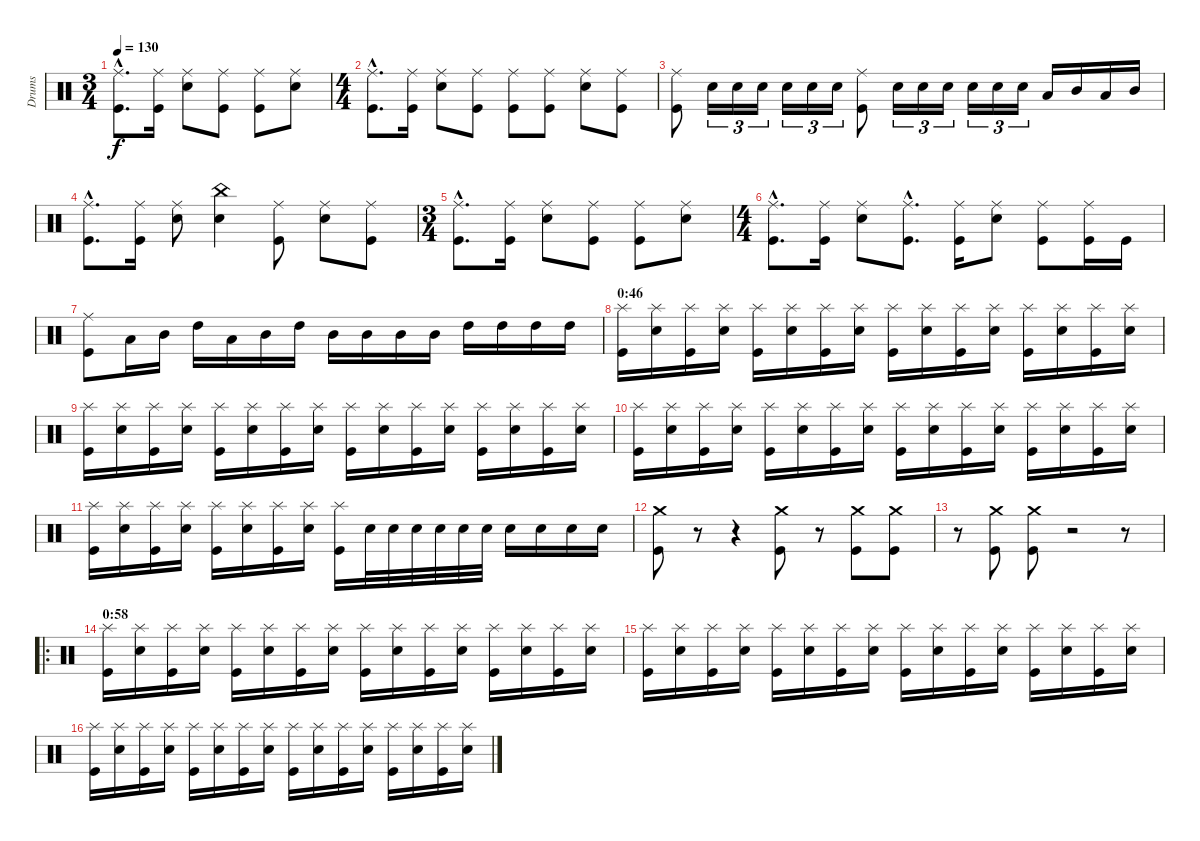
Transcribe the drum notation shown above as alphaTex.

\track ("Drums" "Drums") {instrument percussion}
\staff {score}
\articulation defaults
\ts (3 4)
\tempo 130
\clef neutral
\ks c
("Kick (hit)"{hac} "Ride (middle)"{hac}).8{d dy f} ("Kick (hit)" "Ride (middle)").16 ("Electric Snare (hit)" "Ride (middle)").8 ("Kick (hit)" "Ride (middle)").8 ("Kick (hit)" "Ride (middle)").8 ("Electric Snare (hit)" "Ride (middle)").8 |
\ts (4 4)
("Kick (hit)"{hac} "Ride (middle)"{hac}).8{d} ("Kick (hit)" "Ride (middle)").16 ("Electric Snare (hit)" "Ride (middle)").8 ("Kick (hit)" "Ride (middle)").8 ("Kick (hit)" "Ride (middle)").8 ("Kick (hit)" "Ride (middle)").8 ("Electric Snare (hit)" "Ride (middle)").8 ("Kick (hit)" "Ride (middle)").8 |
("Kick (hit)" "Ride (middle)").8 "Electric Snare (hit)".16{tu (3 2)} "Electric Snare (hit)".16{tu (3 2)} "Electric Snare (hit)".16{tu (3 2)} "Electric Snare (hit)".16{tu (3 2)} "Electric Snare (hit)".16{tu (3 2)} "Electric Snare (hit)".16{tu (3 2)} ("Kick (hit)" "Ride (middle)").8 "Electric Snare (hit)".16{tu (3 2)} "Electric Snare (hit)".16{tu (3 2)} "Electric Snare (hit)".16{tu (3 2)} "Electric Snare (hit)".16{tu (3 2)} "Electric Snare (hit)".16{tu (3 2)} "Electric Snare (hit)".16{tu (3 2)} "Low Tom (hit)".16 "Mid Tom (hit)".16 "Low Tom (hit)".16 "Mid Tom (hit)".16 |
("Kick (hit)"{hac} "Ride (middle)"{hac}).8{d} ("Kick (hit)" "Ride (middle)").16 ("Electric Snare (hit)" "Ride (middle)").8 ("Electric Snare (hit)" "China (hit)").4 ("Kick (hit)" "Ride (middle)").8 ("Electric Snare (hit)" "Ride (middle)").8 ("Kick (hit)" "Ride (middle)").8 |
\ts (3 4)
("Kick (hit)"{hac} "Ride (middle)"{hac}).8{d} ("Kick (hit)" "Ride (middle)").16 ("Electric Snare (hit)" "Ride (middle)").8 ("Kick (hit)" "Ride (middle)").8 ("Kick (hit)" "Ride (middle)").8 ("Electric Snare (hit)" "Ride (middle)").8 |
\ts (4 4)
("Kick (hit)"{hac} "Ride (middle)"{hac}).8{d} ("Kick (hit)" "Ride (middle)").16 ("Electric Snare (hit)" "Ride (middle)").8 ("Kick (hit)"{hac} "Ride (middle)"{hac}).8{d} ("Kick (hit)" "Ride (middle)").16 ("Electric Snare (hit)" "Ride (middle)").8 ("Kick (hit)" "Ride (middle)").8 ("Kick (hit)" "Ride (middle)").16 "Kick (hit)".16 |
("Kick (hit)" "Ride (middle)").8 "Low Tom (hit)".16 "Mid Tom (hit)".16 "High Tom (hit)".16 "Low Tom (hit)".16 "Mid Tom (hit)".16 "High Tom (hit)".16 "Mid Tom (hit)".16 "Mid Tom (hit)".16 "Mid Tom (hit)".16 "Mid Tom (hit)".16 "High Tom (hit)".16 "High Tom (hit)".16 "High Tom (hit)".16 "High Tom (hit)".16 |
\section ("" "0:46")
("Kick (hit)" "Splash (hit)").16 ("Electric Snare (hit)" "Splash (hit)").16 ("Kick (hit)" "Splash (hit)").16 ("Electric Snare (hit)" "Splash (hit)").16 ("Kick (hit)" "Splash (hit)").16 ("Electric Snare (hit)" "Splash (hit)").16 ("Kick (hit)" "Splash (hit)").16 ("Electric Snare (hit)" "Splash (hit)").16 ("Kick (hit)" "Splash (hit)").16 ("Electric Snare (hit)" "Splash (hit)").16 ("Kick (hit)" "Splash (hit)").16 ("Electric Snare (hit)" "Splash (hit)").16 ("Kick (hit)" "Splash (hit)").16 ("Electric Snare (hit)" "Splash (hit)").16 ("Kick (hit)" "Splash (hit)").16 ("Electric Snare (hit)" "Splash (hit)").16 |
("Kick (hit)" "Splash (hit)").16 ("Electric Snare (hit)" "Splash (hit)").16 ("Kick (hit)" "Splash (hit)").16 ("Electric Snare (hit)" "Splash (hit)").16 ("Kick (hit)" "Splash (hit)").16 ("Electric Snare (hit)" "Splash (hit)").16 ("Kick (hit)" "Splash (hit)").16 ("Electric Snare (hit)" "Splash (hit)").16 ("Kick (hit)" "Splash (hit)").16 ("Electric Snare (hit)" "Splash (hit)").16 ("Kick (hit)" "Splash (hit)").16 ("Electric Snare (hit)" "Splash (hit)").16 ("Kick (hit)" "Splash (hit)").16 ("Electric Snare (hit)" "Splash (hit)").16 ("Kick (hit)" "Splash (hit)").16 ("Electric Snare (hit)" "Splash (hit)").16 |
("Kick (hit)" "Splash (hit)").16 ("Electric Snare (hit)" "Splash (hit)").16 ("Kick (hit)" "Splash (hit)").16 ("Electric Snare (hit)" "Splash (hit)").16 ("Kick (hit)" "Splash (hit)").16 ("Electric Snare (hit)" "Splash (hit)").16 ("Kick (hit)" "Splash (hit)").16 ("Electric Snare (hit)" "Splash (hit)").16 ("Kick (hit)" "Splash (hit)").16 ("Electric Snare (hit)" "Splash (hit)").16 ("Kick (hit)" "Splash (hit)").16 ("Electric Snare (hit)" "Splash (hit)").16 ("Kick (hit)" "Splash (hit)").16 ("Electric Snare (hit)" "Splash (hit)").16 ("Kick (hit)" "Splash (hit)").16 ("Electric Snare (hit)" "Splash (hit)").16 |
("Kick (hit)" "Splash (hit)").16 ("Electric Snare (hit)" "Splash (hit)").16 ("Kick (hit)" "Splash (hit)").16 ("Electric Snare (hit)" "Splash (hit)").16 ("Kick (hit)" "Splash (hit)").16 ("Electric Snare (hit)" "Splash (hit)").16 ("Kick (hit)" "Splash (hit)").16 ("Electric Snare (hit)" "Splash (hit)").16 ("Kick (hit)" "Splash (hit)").16 "Electric Snare (hit)".32 "Electric Snare (hit)".32 "Electric Snare (hit)".32 "Electric Snare (hit)".32 "Electric Snare (hit)".32 "Electric Snare (hit)".32 "Electric Snare (hit)".16 "Electric Snare (hit)".16 "Electric Snare (hit)".16 "Electric Snare (hit)".16 |
("Kick (hit)" "Crash medium (hit)").8 r.8 r.4 ("Kick (hit)" "Crash medium (hit)").8 r.8 ("Kick (hit)" "Crash medium (hit)").8 ("Kick (hit)" "Crash medium (hit)").8 |
r.8 ("Kick (hit)" "Crash medium (hit)").8 ("Kick (hit)" "Crash medium (hit)").8 r.2 r.8 |
\ro
\section ("" "0:58")
("Kick (hit)" "Splash (hit)").16 ("Electric Snare (hit)" "Splash (hit)").16 ("Kick (hit)" "Splash (hit)").16 ("Electric Snare (hit)" "Splash (hit)").16 ("Kick (hit)" "Splash (hit)").16 ("Electric Snare (hit)" "Splash (hit)").16 ("Kick (hit)" "Splash (hit)").16 ("Electric Snare (hit)" "Splash (hit)").16 ("Kick (hit)" "Splash (hit)").16 ("Electric Snare (hit)" "Splash (hit)").16 ("Kick (hit)" "Splash (hit)").16 ("Electric Snare (hit)" "Splash (hit)").16 ("Kick (hit)" "Splash (hit)").16 ("Electric Snare (hit)" "Splash (hit)").16 ("Kick (hit)" "Splash (hit)").16 ("Electric Snare (hit)" "Splash (hit)").16 |
("Kick (hit)" "Splash (hit)").16 ("Electric Snare (hit)" "Splash (hit)").16 ("Kick (hit)" "Splash (hit)").16 ("Electric Snare (hit)" "Splash (hit)").16 ("Kick (hit)" "Splash (hit)").16 ("Electric Snare (hit)" "Splash (hit)").16 ("Kick (hit)" "Splash (hit)").16 ("Electric Snare (hit)" "Splash (hit)").16 ("Kick (hit)" "Splash (hit)").16 ("Electric Snare (hit)" "Splash (hit)").16 ("Kick (hit)" "Splash (hit)").16 ("Electric Snare (hit)" "Splash (hit)").16 ("Kick (hit)" "Splash (hit)").16 ("Electric Snare (hit)" "Splash (hit)").16 ("Kick (hit)" "Splash (hit)").16 ("Electric Snare (hit)" "Splash (hit)").16 |
("Kick (hit)" "Splash (hit)").16 ("Electric Snare (hit)" "Splash (hit)").16 ("Kick (hit)" "Splash (hit)").16 ("Electric Snare (hit)" "Splash (hit)").16 ("Kick (hit)" "Splash (hit)").16 ("Electric Snare (hit)" "Splash (hit)").16 ("Kick (hit)" "Splash (hit)").16 ("Electric Snare (hit)" "Splash (hit)").16 ("Kick (hit)" "Splash (hit)").16 ("Electric Snare (hit)" "Splash (hit)").16 ("Kick (hit)" "Splash (hit)").16 ("Electric Snare (hit)" "Splash (hit)").16 ("Kick (hit)" "Splash (hit)").16 ("Electric Snare (hit)" "Splash (hit)").16 ("Kick (hit)" "Splash (hit)").16 ("Electric Snare (hit)" "Splash (hit)").16
